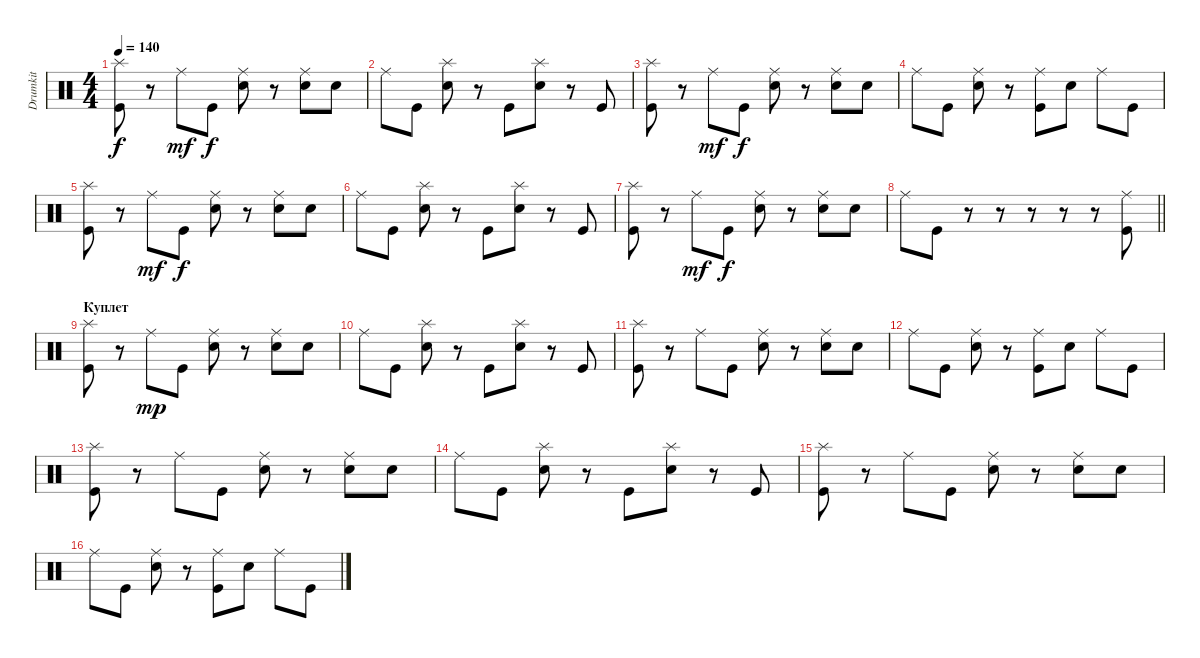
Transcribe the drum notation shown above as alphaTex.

\track ("Drumkit" "Drumkit") {instrument percussion}
\staff {score}
\articulation defaults
\ts (4 4)
\tempo 140
\clef neutral
\ks c
("Kick (hit)" "Splash (hit)").8{dy f} r.8 "Ride (middle)".8{dy mf} "Kick (hit)".8{dy f} ("Snare (hit) 2" "Ride (middle)").8 r.8 ("Snare (hit) 2" "Ride (middle)").8 "Snare (hit) 2".8 |
"Ride (middle)".8 "Kick (hit)".8 ("Snare (hit) 2" "Splash (hit)").8 r.8 "Kick (hit)".8 ("Snare (hit) 2" "Splash (hit)").8 r.8 "Kick (hit)".8 |
("Kick (hit)" "Splash (hit)").8 r.8 "Ride (middle)".8{dy mf} "Kick (hit)".8{dy f} ("Snare (hit) 2" "Ride (middle)").8 r.8 ("Snare (hit) 2" "Ride (middle)").8 "Snare (hit) 2".8 |
"Ride (middle)".8 "Kick (hit)".8 ("Snare (hit) 2" "Ride (middle)").8 r.8 ("Kick (hit)" "Ride (middle)").8 "Snare (hit) 2".8 "Ride (middle)".8 "Kick (hit)".8 |
("Kick (hit)" "Splash (hit)").8 r.8 "Ride (middle)".8{dy mf} "Kick (hit)".8{dy f} ("Snare (hit) 2" "Ride (middle)").8 r.8 ("Snare (hit) 2" "Ride (middle)").8 "Snare (hit) 2".8 |
"Ride (middle)".8 "Kick (hit)".8 ("Snare (hit) 2" "Splash (hit)").8 r.8 "Kick (hit)".8 ("Snare (hit) 2" "Splash (hit)").8 r.8 "Kick (hit)".8 |
("Kick (hit)" "Splash (hit)").8 r.8 "Ride (middle)".8{dy mf} "Kick (hit)".8{dy f} ("Snare (hit) 2" "Ride (middle)").8 r.8 ("Snare (hit) 2" "Ride (middle)").8 "Snare (hit) 2".8 |
\barLineRight lightlight "Ride (middle)".8 "Kick (hit)".8
r.8 r.8 r.8 r.8 r.8 ("Ride (middle)" "Kick (hit)").8 |
\section ("" "Куплет")
("Kick (hit)" "Splash (hit)").8 r.8 "Ride (middle)".8{dy mp} "Kick (hit)".8 ("Snare (hit) 2" "Ride (middle)").8 r.8 ("Snare (hit) 2" "Ride (middle)").8 "Snare (hit) 2".8 |
"Ride (middle)".8 "Kick (hit)".8 ("Snare (hit) 2" "Splash (hit)").8 r.8 "Kick (hit)".8 ("Snare (hit) 2" "Splash (hit)").8 r.8 "Kick (hit)".8 |
("Kick (hit)" "Splash (hit)").8 r.8 "Ride (middle)".8 "Kick (hit)".8 ("Snare (hit) 2" "Ride (middle)").8 r.8 ("Snare (hit) 2" "Ride (middle)").8 "Snare (hit) 2".8 |
"Ride (middle)".8 "Kick (hit)".8 ("Snare (hit) 2" "Ride (middle)").8 r.8 ("Kick (hit)" "Ride (middle)").8 "Snare (hit) 2".8 "Ride (middle)".8 "Kick (hit)".8 |
("Kick (hit)" "Splash (hit)").8 r.8 "Ride (middle)".8 "Kick (hit)".8 ("Snare (hit) 2" "Ride (middle)").8 r.8 ("Snare (hit) 2" "Ride (middle)").8 "Snare (hit) 2".8 |
"Ride (middle)".8 "Kick (hit)".8 ("Snare (hit) 2" "Splash (hit)").8 r.8 "Kick (hit)".8 ("Snare (hit) 2" "Splash (hit)").8 r.8 "Kick (hit)".8 |
("Kick (hit)" "Splash (hit)").8 r.8 "Ride (middle)".8 "Kick (hit)".8 ("Snare (hit) 2" "Ride (middle)").8 r.8 ("Snare (hit) 2" "Ride (middle)").8 "Snare (hit) 2".8 |
"Ride (middle)".8 "Kick (hit)".8 ("Snare (hit) 2" "Ride (middle)").8 r.8 ("Kick (hit)" "Ride (middle)").8 "Snare (hit) 2".8 "Ride (middle)".8 "Kick (hit)".8
